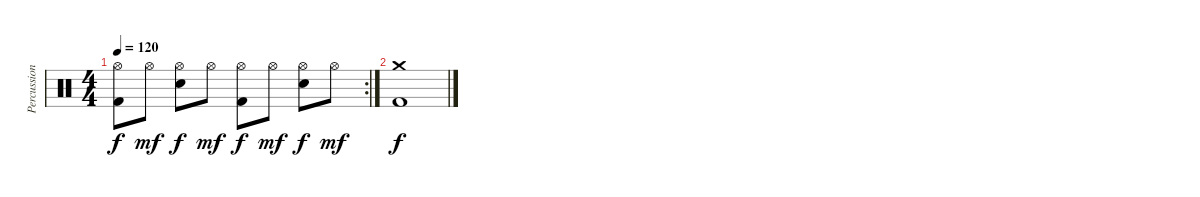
\track ("Percussion" "Percussion") {instrument percussion}
\staff {score}
\articulation defaults
\rc 2
\ts (4 4)
\tempo 120
\clef neutral
\ks c
("Hi-Hat (open)" "Kick (hit) 2").8{dy f} "Hi-Hat (open)".8{dy mf} ("Hi-Hat (open)" "Electric Snare (hit)").8{dy f} "Hi-Hat (open)".8{dy mf} ("Hi-Hat (open)" "Kick (hit) 2").8{dy f} "Hi-Hat (open)".8{dy mf} ("Hi-Hat (open)" "Electric Snare (hit)").8{dy f} "Hi-Hat (open)".8{dy mf} |
("Crash medium (hit)" "Kick (hit) 2").1{dy f}
